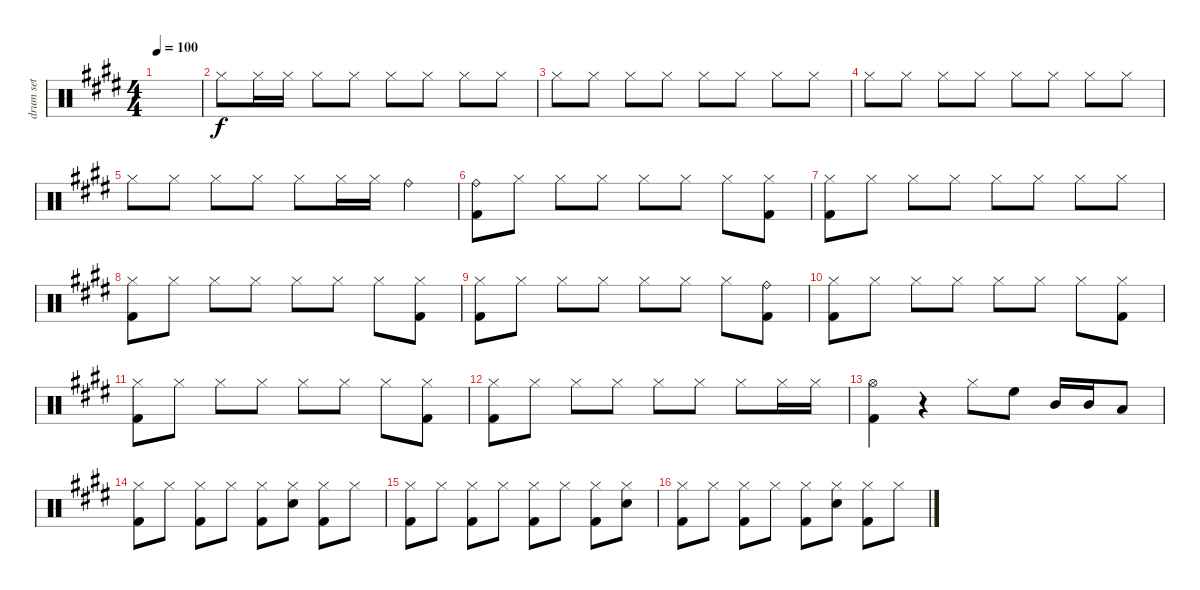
\track ("drum set" "drum set") {instrument percussion}
\staff {score}
\articulation defaults
\ts (4 4)
\tempo 100
\clef neutral
\ks e
|
"Hi-Hat (closed)".8 "Hi-Hat (closed)".16 "Hi-Hat (closed)".16 "Hi-Hat (closed)".8 "Hi-Hat (closed)".8 "Hi-Hat (closed)".8 "Hi-Hat (closed)".8 "Hi-Hat (closed)".8 "Hi-Hat (closed)".8 |
"Hi-Hat (closed)".8 "Hi-Hat (closed)".8 "Hi-Hat (closed)".8 "Hi-Hat (closed)".8 "Hi-Hat (closed)".8 "Hi-Hat (closed)".8 "Hi-Hat (closed)".8 "Hi-Hat (closed)".8 |
"Hi-Hat (closed)".8 "Hi-Hat (closed)".8 "Hi-Hat (closed)".8 "Hi-Hat (closed)".8 "Hi-Hat (closed)".8 "Hi-Hat (closed)".8 "Hi-Hat (closed)".8 "Hi-Hat (closed)".8 |
"Hi-Hat (closed)".8 "Hi-Hat (closed)".8 "Hi-Hat (closed)".8 "Hi-Hat (closed)".8 "Hi-Hat (closed)".8 "Hi-Hat (closed)".16 "Hi-Hat (closed)".16 "Ride (bell)".4 |
("Ride (bell)" "Kick (hit) 2").8 "Hi-Hat (closed)".8 "Hi-Hat (closed)".8 "Hi-Hat (closed)".8 "Hi-Hat (closed)".8 "Hi-Hat (closed)".8 "Hi-Hat (closed)".8 ("Hi-Hat (closed)" "Kick (hit) 2").8 |
("Hi-Hat (closed)" "Kick (hit) 2").8 "Hi-Hat (closed)".8 "Hi-Hat (closed)".8 "Hi-Hat (closed)".8 "Hi-Hat (closed)".8 "Hi-Hat (closed)".8 "Hi-Hat (closed)".8 "Hi-Hat (closed)".8 |
("Hi-Hat (closed)" "Kick (hit) 2").8 "Hi-Hat (closed)".8 "Hi-Hat (closed)".8 "Hi-Hat (closed)".8 "Hi-Hat (closed)".8 "Hi-Hat (closed)".8 "Hi-Hat (closed)".8 ("Hi-Hat (closed)" "Kick (hit) 2").8 |
("Hi-Hat (closed)" "Kick (hit) 2").8 "Hi-Hat (closed)".8 "Hi-Hat (closed)".8 "Hi-Hat (closed)".8 "Hi-Hat (closed)".8 "Hi-Hat (closed)".8 "Hi-Hat (closed)".8 ("Ride (bell)" "Kick (hit) 2").8 |
("Hi-Hat (closed)" "Kick (hit) 2").8 "Hi-Hat (closed)".8 "Hi-Hat (closed)".8 "Hi-Hat (closed)".8 "Hi-Hat (closed)".8 "Hi-Hat (closed)".8 "Hi-Hat (closed)".8 ("Hi-Hat (closed)" "Kick (hit) 2").8 |
("Hi-Hat (closed)" "Kick (hit) 2").8 "Hi-Hat (closed)".8 "Hi-Hat (closed)".8 "Hi-Hat (closed)".8 "Hi-Hat (closed)".8 "Hi-Hat (closed)".8 "Hi-Hat (closed)".8 ("Hi-Hat (closed)" "Kick (hit) 2").8 |
("Hi-Hat (closed)" "Kick (hit) 2").8 "Hi-Hat (closed)".8 "Hi-Hat (closed)".8 "Hi-Hat (closed)".8 "Hi-Hat (closed)".8 "Hi-Hat (closed)".8 "Hi-Hat (closed)".8 "Hi-Hat (closed)".16 "Hi-Hat (closed)".16 |
("Hi-Hat (open)" "Kick (hit) 2").4 r.4 "Hi-Hat (closed)".8 "High Floor Tom (hit)".8 "Mid Tom (hit)".16 "Mid Tom (hit)".16 "Low Tom (hit)".8 |
("Hi-Hat (closed)" "Kick (hit) 2").8 "Hi-Hat (closed)".8 ("Hi-Hat (closed)" "Kick (hit) 2").8 "Hi-Hat (closed)".8 ("Hi-Hat (closed)" "Kick (hit) 2").8 ("Hi-Hat (closed)" "Snare (hit) 2").8 ("Hi-Hat (closed)" "Kick (hit) 2").8 "Hi-Hat (closed)".8 |
("Hi-Hat (closed)" "Kick (hit) 2").8 "Hi-Hat (closed)".8 ("Hi-Hat (closed)" "Kick (hit) 2").8 "Hi-Hat (closed)".8 ("Hi-Hat (closed)" "Kick (hit) 2").8 "Hi-Hat (closed)".8 ("Hi-Hat (closed)" "Kick (hit) 2").8 ("Hi-Hat (closed)" "Snare (hit) 2").8 |
("Hi-Hat (closed)" "Kick (hit) 2").8 "Hi-Hat (closed)".8 ("Hi-Hat (closed)" "Kick (hit) 2").8 "Hi-Hat (closed)".8 ("Hi-Hat (closed)" "Kick (hit) 2").8 ("Hi-Hat (closed)" "Snare (hit) 2").8 ("Hi-Hat (closed)" "Kick (hit) 2").8 "Hi-Hat (closed)".8
